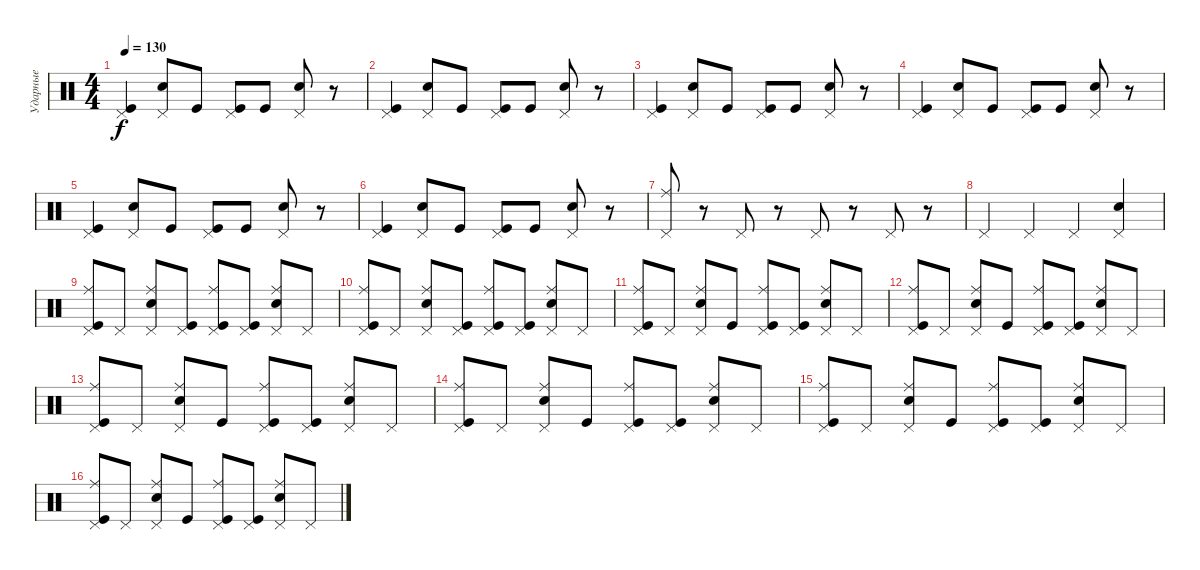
\track ("Ударные" "Ударные") {instrument percussion}
\staff {score}
\articulation defaults
\ts (4 4)
\tempo 130
\clef neutral
\ks c
("Pedal Hi-Hat (hit)" "Kick (hit)").4{dy f} ("Pedal Hi-Hat (hit)" "Electric Snare (hit)").8 "Kick (hit)".8 ("Pedal Hi-Hat (hit)" "Kick (hit)").8 "Kick (hit)".8 ("Pedal Hi-Hat (hit)" "Electric Snare (hit)").8 r.8 |
("Pedal Hi-Hat (hit)" "Kick (hit)").4 ("Pedal Hi-Hat (hit)" "Electric Snare (hit)").8 "Kick (hit)".8 ("Pedal Hi-Hat (hit)" "Kick (hit)").8 "Kick (hit)".8 ("Pedal Hi-Hat (hit)" "Electric Snare (hit)").8 r.8 |
("Pedal Hi-Hat (hit)" "Kick (hit)").4 ("Pedal Hi-Hat (hit)" "Electric Snare (hit)").8 "Kick (hit)".8 ("Pedal Hi-Hat (hit)" "Kick (hit)").8 "Kick (hit)".8 ("Pedal Hi-Hat (hit)" "Electric Snare (hit)").8 r.8 |
("Pedal Hi-Hat (hit)" "Kick (hit)").4 ("Pedal Hi-Hat (hit)" "Electric Snare (hit)").8 "Kick (hit)".8 ("Pedal Hi-Hat (hit)" "Kick (hit)").8 "Kick (hit)".8 ("Pedal Hi-Hat (hit)" "Electric Snare (hit)").8 r.8 |
("Pedal Hi-Hat (hit)" "Kick (hit)").4 ("Pedal Hi-Hat (hit)" "Electric Snare (hit)").8 "Kick (hit)".8 ("Pedal Hi-Hat (hit)" "Kick (hit)").8 "Kick (hit)".8 ("Pedal Hi-Hat (hit)" "Electric Snare (hit)").8 r.8 |
("Pedal Hi-Hat (hit)" "Kick (hit)").4 ("Pedal Hi-Hat (hit)" "Electric Snare (hit)").8 "Kick (hit)".8 ("Pedal Hi-Hat (hit)" "Kick (hit)").8 "Kick (hit)".8 ("Pedal Hi-Hat (hit)" "Electric Snare (hit)").8 r.8 |
("Pedal Hi-Hat (hit)" "Ride (middle)").8 r.8 "Pedal Hi-Hat (hit)".8 r.8 "Pedal Hi-Hat (hit)".8 r.8 "Pedal Hi-Hat (hit)".8 r.8 |
"Pedal Hi-Hat (hit)".4 "Pedal Hi-Hat (hit)".4 "Pedal Hi-Hat (hit)".4 ("Electric Snare (hit)" "Pedal Hi-Hat (hit)").4 |
("Ride (middle)" "Pedal Hi-Hat (hit)" "Kick (hit)").8 "Pedal Hi-Hat (hit)".8 ("Ride (middle)" "Pedal Hi-Hat (hit)" "Electric Snare (hit)").8 ("Pedal Hi-Hat (hit)" "Kick (hit)").8 ("Ride (middle)" "Pedal Hi-Hat (hit)" "Kick (hit)").8 ("Pedal Hi-Hat (hit)" "Kick (hit)").8 ("Ride (middle)" "Pedal Hi-Hat (hit)" "Electric Snare (hit)").8 "Pedal Hi-Hat (hit)".8 |
("Ride (middle)" "Pedal Hi-Hat (hit)" "Kick (hit)").8 "Pedal Hi-Hat (hit)".8 ("Ride (middle)" "Pedal Hi-Hat (hit)" "Electric Snare (hit)").8 ("Pedal Hi-Hat (hit)" "Kick (hit)").8 ("Ride (middle)" "Pedal Hi-Hat (hit)" "Kick (hit)").8 ("Pedal Hi-Hat (hit)" "Kick (hit)").8 ("Ride (middle)" "Pedal Hi-Hat (hit)" "Electric Snare (hit)").8 "Pedal Hi-Hat (hit)".8 |
("Ride (middle)" "Pedal Hi-Hat (hit)" "Kick (hit)").8 "Pedal Hi-Hat (hit)".8 ("Ride (middle)" "Pedal Hi-Hat (hit)" "Electric Snare (hit)").8 "Kick (hit)".8 ("Ride (middle)" "Pedal Hi-Hat (hit)" "Kick (hit)").8 ("Pedal Hi-Hat (hit)" "Kick (hit)").8 ("Ride (middle)" "Pedal Hi-Hat (hit)" "Electric Snare (hit)").8 "Pedal Hi-Hat (hit)".8 |
("Ride (middle)" "Pedal Hi-Hat (hit)" "Kick (hit)").8 "Pedal Hi-Hat (hit)".8 ("Ride (middle)" "Pedal Hi-Hat (hit)" "Electric Snare (hit)").8 "Kick (hit)".8 ("Ride (middle)" "Pedal Hi-Hat (hit)" "Kick (hit)").8 ("Pedal Hi-Hat (hit)" "Kick (hit)").8 ("Ride (middle)" "Pedal Hi-Hat (hit)" "Electric Snare (hit)").8 "Pedal Hi-Hat (hit)".8 |
("Ride (middle)" "Pedal Hi-Hat (hit)" "Kick (hit)").8 "Pedal Hi-Hat (hit)".8 ("Ride (middle)" "Pedal Hi-Hat (hit)" "Electric Snare (hit)").8 "Kick (hit)".8 ("Ride (middle)" "Pedal Hi-Hat (hit)" "Kick (hit)").8 ("Pedal Hi-Hat (hit)" "Kick (hit)").8 ("Ride (middle)" "Pedal Hi-Hat (hit)" "Electric Snare (hit)").8 "Pedal Hi-Hat (hit)".8 |
("Ride (middle)" "Pedal Hi-Hat (hit)" "Kick (hit)").8 "Pedal Hi-Hat (hit)".8 ("Ride (middle)" "Pedal Hi-Hat (hit)" "Electric Snare (hit)").8 "Kick (hit)".8 ("Ride (middle)" "Pedal Hi-Hat (hit)" "Kick (hit)").8 ("Pedal Hi-Hat (hit)" "Kick (hit)").8 ("Ride (middle)" "Pedal Hi-Hat (hit)" "Electric Snare (hit)").8 "Pedal Hi-Hat (hit)".8 |
("Ride (middle)" "Pedal Hi-Hat (hit)" "Kick (hit)").8 "Pedal Hi-Hat (hit)".8 ("Ride (middle)" "Pedal Hi-Hat (hit)" "Electric Snare (hit)").8 "Kick (hit)".8 ("Ride (middle)" "Pedal Hi-Hat (hit)" "Kick (hit)").8 ("Pedal Hi-Hat (hit)" "Kick (hit)").8 ("Ride (middle)" "Pedal Hi-Hat (hit)" "Electric Snare (hit)").8 "Pedal Hi-Hat (hit)".8 |
("Ride (middle)" "Pedal Hi-Hat (hit)" "Kick (hit)").8 "Pedal Hi-Hat (hit)".8 ("Ride (middle)" "Pedal Hi-Hat (hit)" "Electric Snare (hit)").8 "Kick (hit)".8 ("Ride (middle)" "Pedal Hi-Hat (hit)" "Kick (hit)").8 ("Pedal Hi-Hat (hit)" "Kick (hit)").8 ("Ride (middle)" "Pedal Hi-Hat (hit)" "Electric Snare (hit)").8 "Pedal Hi-Hat (hit)".8
